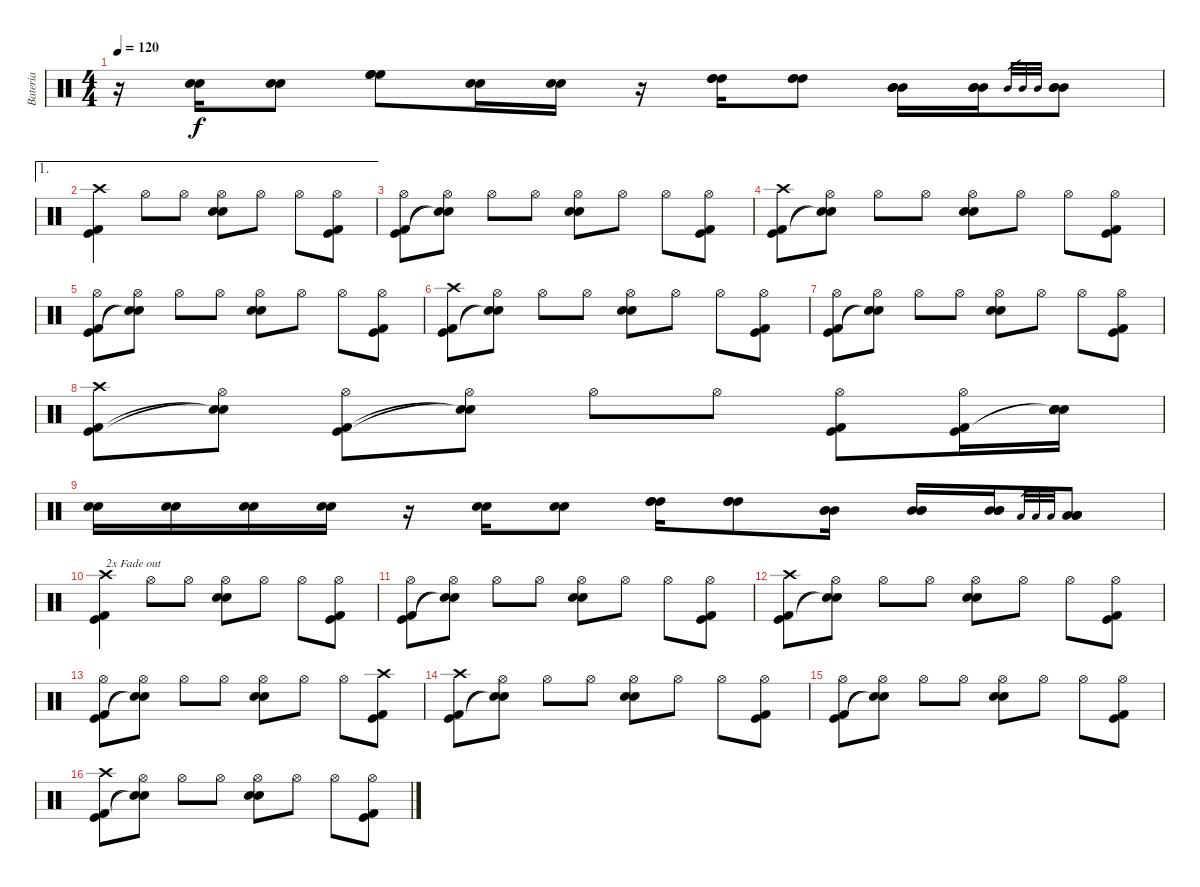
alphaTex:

\track ("Bateria" "Bateria") {instrument percussion}
\staff {score}
\articulation defaults
\ts (4 4)
\tempo 120
\clef neutral
\ks c
r.16{dy f} ("Electric Snare (hit)" "Snare (hit) 2").16 ("Electric Snare (hit)" "Snare (hit) 2").8 ("High Floor Tom (hit)" "High Floor Tom (hit)" "High Floor Tom (hit)").8 ("Electric Snare (hit)" "Snare (hit) 2").16 ("Electric Snare (hit)" "Snare (hit) 2").16 r.16 ("High Tom (hit)" "High Tom (hit)" "High Tom (hit)").16 ("High Tom (hit)" "High Tom (hit)" "High Tom (hit)").8 ("Mid Tom (hit)" "Mid Tom (hit)" "Mid Tom (hit)").16 ("Mid Tom (hit)" "Mid Tom (hit)" "Mid Tom (hit)").16 "Mid Tom (hit)".32{gr} "Mid Tom (hit)".32{gr} "Mid Tom (hit)".32{gr} ("Mid Tom (hit)" "Mid Tom (hit)" "Mid Tom (hit)").8 |
\ae 1
("Crash high (hit)" "Kick (hit)" "Kick (hit) 2").4 "Hi-Hat (open)".8 "Hi-Hat (open)".8 ("Hi-Hat (open)" "Electric Snare (hit)" "Snare (hit) 2").8 "Hi-Hat (open)".8 "Hi-Hat (open)".8 ("Hi-Hat (open)" "Kick (hit)" "Kick (hit) 2").8 |
("Hi-Hat (open)" "Kick (hit)" "Kick (hit) 2").8 ("Hi-Hat (open)" "Snare (hit)"{t} "Snare (hit)"{t}).8 "Hi-Hat (open)".8 "Hi-Hat (open)".8 ("Hi-Hat (open)" "Electric Snare (hit)" "Snare (hit) 2").8 "Hi-Hat (open)".8 "Hi-Hat (open)".8 ("Hi-Hat (open)" "Kick (hit)" "Kick (hit) 2").8 |
("Crash high (hit)" "Kick (hit)" "Kick (hit) 2").8 ("Hi-Hat (open)" "Snare (hit)"{t} "Snare (hit)"{t}).8 "Hi-Hat (open)".8 "Hi-Hat (open)".8 ("Hi-Hat (open)" "Electric Snare (hit)" "Snare (hit) 2").8 "Hi-Hat (open)".8 "Hi-Hat (open)".8 ("Hi-Hat (open)" "Kick (hit)" "Kick (hit) 2").8 |
("Hi-Hat (open)" "Kick (hit)" "Kick (hit) 2").8 ("Hi-Hat (open)" "Snare (hit)"{t} "Snare (hit)"{t}).8 "Hi-Hat (open)".8 "Hi-Hat (open)".8 ("Hi-Hat (open)" "Electric Snare (hit)" "Snare (hit) 2").8 "Hi-Hat (open)".8 "Hi-Hat (open)".8 ("Hi-Hat (open)" "Kick (hit)" "Kick (hit) 2").8 |
("Crash high (hit)" "Kick (hit)" "Kick (hit) 2").8 ("Hi-Hat (open)" "Snare (hit)"{t} "Snare (hit)"{t}).8 "Hi-Hat (open)".8 "Hi-Hat (open)".8 ("Hi-Hat (open)" "Electric Snare (hit)" "Snare (hit) 2").8 "Hi-Hat (open)".8 "Hi-Hat (open)".8 ("Hi-Hat (open)" "Kick (hit)" "Kick (hit) 2").8 |
("Hi-Hat (open)" "Kick (hit)" "Kick (hit) 2").8 ("Hi-Hat (open)" "Snare (hit)"{t} "Snare (hit)"{t}).8 "Hi-Hat (open)".8 "Hi-Hat (open)".8 ("Hi-Hat (open)" "Electric Snare (hit)" "Snare (hit) 2").8 "Hi-Hat (open)".8 "Hi-Hat (open)".8 ("Hi-Hat (open)" "Kick (hit)" "Kick (hit) 2").8 |
("Crash high (hit)" "Kick (hit)" "Kick (hit) 2").8 ("Hi-Hat (open)" "Snare (hit)"{t} "Snare (hit)"{t}).8 ("Hi-Hat (open)" "Kick (hit)" "Kick (hit) 2").8 ("Hi-Hat (open)" "Snare (hit)"{t} "Snare (hit)"{t}).8 "Hi-Hat (open)".8 "Hi-Hat (open)".8 ("Hi-Hat (open)" "Kick (hit)" "Kick (hit) 2").8 ("Hi-Hat (open)" "Kick (hit) 2" "Kick (hit)").16 ("Electric Snare (hit)" "Snare (hit) 2" "Snare (hit)"{t} "Snare (hit)").16 |
("Electric Snare (hit)" "Snare (hit) 2").16 ("Electric Snare (hit)" "Snare (hit) 2").16 ("Electric Snare (hit)" "Snare (hit) 2").16 ("Electric Snare (hit)" "Snare (hit) 2").16 r.16 ("Snare (hit) 2" "Electric Snare (hit)").16 ("Snare (hit) 2" "Electric Snare (hit)").8 ("High Tom (hit)" "High Tom (hit)" "High Tom (hit)").16 ("High Tom (hit)" "High Tom (hit)" "High Tom (hit)").8 ("Mid Tom (hit)" "Mid Tom (hit)" "Mid Tom (hit)").16 ("Mid Tom (hit)" "Mid Tom (hit)" "Mid Tom (hit)").16 ("Mid Tom (hit)" "Mid Tom (hit)" "Mid Tom (hit)").16 "Low Tom (hit)".32{gr} "Low Tom (hit)".32{gr} "Low Tom (hit)".32{gr} ("Low Tom (hit)" "Low Tom (hit)" "Low Tom (hit)").8 |
("Crash high (hit)" "Kick (hit) 2" "Kick (hit)").4{txt "2x Fade out" volume 13} "Hi-Hat (open)".8{volume 12} "Hi-Hat (open)".8 ("Hi-Hat (open)" "Electric Snare (hit)" "Snare (hit) 2").8 "Hi-Hat (open)".8 "Hi-Hat (open)".8 ("Hi-Hat (open)" "Kick (hit)" "Kick (hit) 2").8 |
("Hi-Hat (open)" "Kick (hit) 2" "Kick (hit)").8{volume 12} ("Hi-Hat (open)" "Snare (hit)"{t} "Snare (hit)"{t}).8{volume 11} "Hi-Hat (open)".8 "Hi-Hat (open)".8 ("Hi-Hat (open)" "Electric Snare (hit)" "Snare (hit) 2").8 "Hi-Hat (open)".8 "Hi-Hat (open)".8 ("Hi-Hat (open)" "Kick (hit)" "Kick (hit) 2").8 |
("Crash high (hit)" "Kick (hit) 2" "Kick (hit)").8{volume 11} ("Hi-Hat (open)" "Snare (hit)"{t} "Snare (hit)"{t}).8{volume 10} "Hi-Hat (open)".8 "Hi-Hat (open)".8 ("Hi-Hat (open)" "Electric Snare (hit)" "Snare (hit) 2").8 "Hi-Hat (open)".8 "Hi-Hat (open)".8 ("Hi-Hat (open)" "Kick (hit)" "Kick (hit) 2").8 |
("Hi-Hat (open)" "Kick (hit) 2" "Kick (hit)").8{volume 10} ("Hi-Hat (open)" "Snare (hit)"{t} "Snare (hit)"{t}).8{volume 9} "Hi-Hat (open)".8 "Hi-Hat (open)".8 ("Hi-Hat (open)" "Electric Snare (hit)" "Snare (hit) 2").8 "Hi-Hat (open)".8 "Hi-Hat (open)".8 ("Crash high (hit)" "Kick (hit)" "Kick (hit) 2").8 |
("Crash high (hit)" "Kick (hit) 2" "Kick (hit)").8{volume 9} ("Hi-Hat (open)" "Snare (hit)"{t} "Snare (hit)"{t}).8{volume 8} "Hi-Hat (open)".8 "Hi-Hat (open)".8 ("Hi-Hat (open)" "Electric Snare (hit)" "Snare (hit) 2").8 "Hi-Hat (open)".8 "Hi-Hat (open)".8 ("Hi-Hat (open)" "Kick (hit)" "Kick (hit) 2").8 |
("Hi-Hat (open)" "Kick (hit) 2" "Kick (hit)").8{volume 8} ("Hi-Hat (open)" "Snare (hit)"{t} "Snare (hit)"{t}).8{volume 7} "Hi-Hat (open)".8 "Hi-Hat (open)".8 ("Hi-Hat (open)" "Electric Snare (hit)" "Snare (hit) 2").8 "Hi-Hat (open)".8 "Hi-Hat (open)".8 ("Hi-Hat (open)" "Kick (hit)" "Kick (hit) 2").8 |
("Crash high (hit)" "Kick (hit)" "Kick (hit) 2").8{volume 7} ("Hi-Hat (open)" "Snare (hit)"{t} "Snare (hit)"{t}).8{volume 6} "Hi-Hat (open)".8{volume 5} "Hi-Hat (open)".8 ("Hi-Hat (open)" "Electric Snare (hit)" "Snare (hit) 2").8 "Hi-Hat (open)".8 "Hi-Hat (open)".8 ("Hi-Hat (open)" "Kick (hit)" "Kick (hit) 2").8
